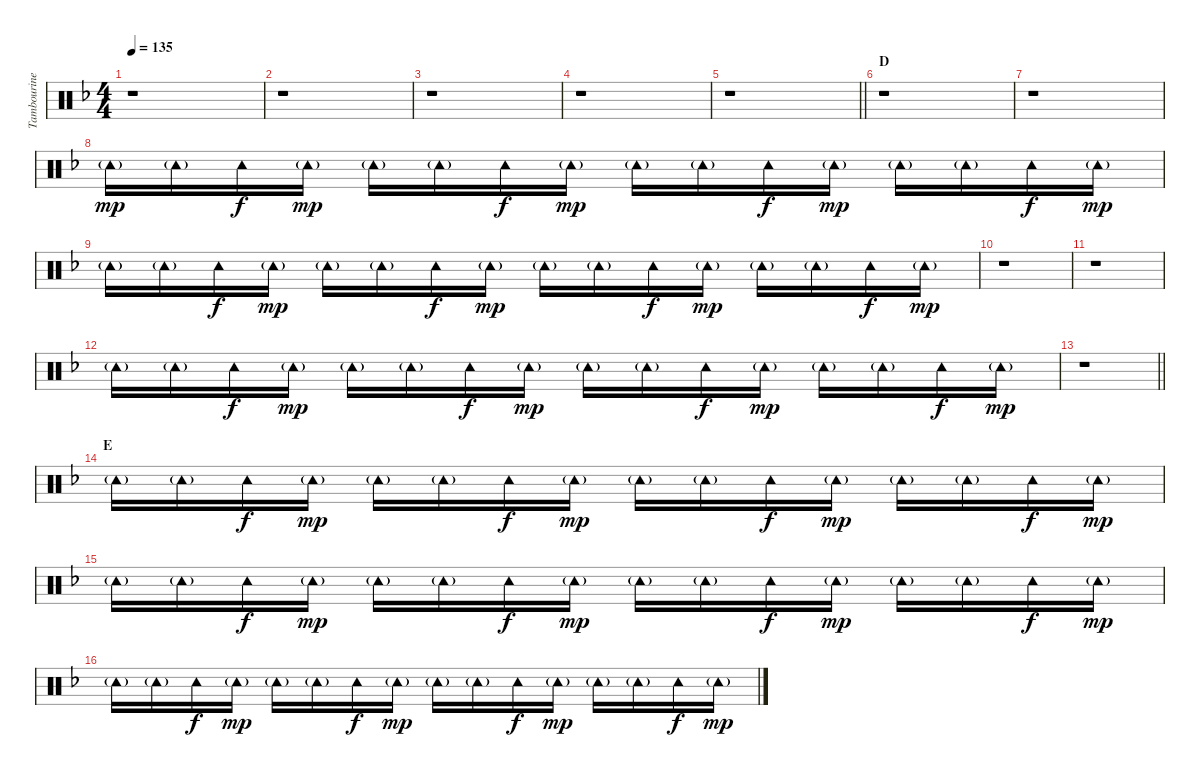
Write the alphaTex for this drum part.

\track ("Tambourine" "Tambourine") {instrument percussion}
\staff {score}
\articulation defaults
\ts (4 4)
\tempo 135
\clef neutral
\ks f
r.1{dy mp} |
r.1 |
r.1 |
r.1 |
\barLineRight lightlight
r.1 |
\section ("" "D")
r.1 |
r.1 |
"Tambourine (hit)"{g}.16 "Tambourine (hit)"{g}.16 "Tambourine (hit)".16{dy f} "Tambourine (hit)"{g}.16{dy mp} "Tambourine (hit)"{g}.16 "Tambourine (hit)"{g}.16 "Tambourine (hit)".16{dy f} "Tambourine (hit)"{g}.16{dy mp} "Tambourine (hit)"{g}.16 "Tambourine (hit)"{g}.16 "Tambourine (hit)".16{dy f} "Tambourine (hit)"{g}.16{dy mp} "Tambourine (hit)"{g}.16 "Tambourine (hit)"{g}.16 "Tambourine (hit)".16{dy f} "Tambourine (hit)"{g}.16{dy mp} |
"Tambourine (hit)"{g}.16 "Tambourine (hit)"{g}.16 "Tambourine (hit)".16{dy f} "Tambourine (hit)"{g}.16{dy mp} "Tambourine (hit)"{g}.16 "Tambourine (hit)"{g}.16 "Tambourine (hit)".16{dy f} "Tambourine (hit)"{g}.16{dy mp} "Tambourine (hit)"{g}.16 "Tambourine (hit)"{g}.16 "Tambourine (hit)".16{dy f} "Tambourine (hit)"{g}.16{dy mp} "Tambourine (hit)"{g}.16 "Tambourine (hit)"{g}.16 "Tambourine (hit)".16{dy f} "Tambourine (hit)"{g}.16{dy mp} |
r.1 |
r.1 |
"Tambourine (hit)"{g}.16 "Tambourine (hit)"{g}.16 "Tambourine (hit)".16{dy f} "Tambourine (hit)"{g}.16{dy mp} "Tambourine (hit)"{g}.16 "Tambourine (hit)"{g}.16 "Tambourine (hit)".16{dy f} "Tambourine (hit)"{g}.16{dy mp} "Tambourine (hit)"{g}.16 "Tambourine (hit)"{g}.16 "Tambourine (hit)".16{dy f} "Tambourine (hit)"{g}.16{dy mp} "Tambourine (hit)"{g}.16 "Tambourine (hit)"{g}.16 "Tambourine (hit)".16{dy f} "Tambourine (hit)"{g}.16{dy mp} |
\barLineRight lightlight
r.1 |
\section ("" "E")
"Tambourine (hit)"{g}.16 "Tambourine (hit)"{g}.16 "Tambourine (hit)".16{dy f} "Tambourine (hit)"{g}.16{dy mp} "Tambourine (hit)"{g}.16 "Tambourine (hit)"{g}.16 "Tambourine (hit)".16{dy f} "Tambourine (hit)"{g}.16{dy mp} "Tambourine (hit)"{g}.16 "Tambourine (hit)"{g}.16 "Tambourine (hit)".16{dy f} "Tambourine (hit)"{g}.16{dy mp} "Tambourine (hit)"{g}.16 "Tambourine (hit)"{g}.16 "Tambourine (hit)".16{dy f} "Tambourine (hit)"{g}.16{dy mp} |
"Tambourine (hit)"{g}.16 "Tambourine (hit)"{g}.16 "Tambourine (hit)".16{dy f} "Tambourine (hit)"{g}.16{dy mp} "Tambourine (hit)"{g}.16 "Tambourine (hit)"{g}.16 "Tambourine (hit)".16{dy f} "Tambourine (hit)"{g}.16{dy mp} "Tambourine (hit)"{g}.16 "Tambourine (hit)"{g}.16 "Tambourine (hit)".16{dy f} "Tambourine (hit)"{g}.16{dy mp} "Tambourine (hit)"{g}.16 "Tambourine (hit)"{g}.16 "Tambourine (hit)".16{dy f} "Tambourine (hit)"{g}.16{dy mp} |
"Tambourine (hit)"{g}.16 "Tambourine (hit)"{g}.16 "Tambourine (hit)".16{dy f} "Tambourine (hit)"{g}.16{dy mp} "Tambourine (hit)"{g}.16 "Tambourine (hit)"{g}.16 "Tambourine (hit)".16{dy f} "Tambourine (hit)"{g}.16{dy mp} "Tambourine (hit)"{g}.16 "Tambourine (hit)"{g}.16 "Tambourine (hit)".16{dy f} "Tambourine (hit)"{g}.16{dy mp} "Tambourine (hit)"{g}.16 "Tambourine (hit)"{g}.16 "Tambourine (hit)".16{dy f} "Tambourine (hit)"{g}.16{dy mp}
